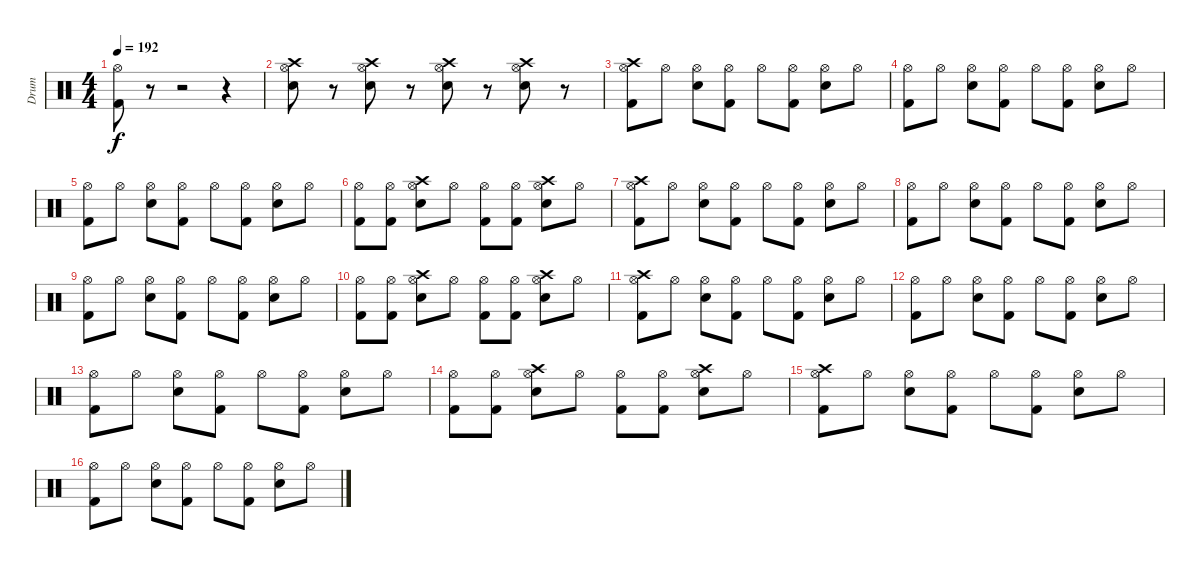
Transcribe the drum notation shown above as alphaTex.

\track ("Drum" "Drum") {instrument percussion}
\staff {score}
\articulation defaults
\ts (4 4)
\tempo 192
\clef neutral
\ks c
("Kick (hit) 2" "Hi-Hat (open)").8{dy f} r.8 r.2 r.4 |
("Crash high (hit)" "Electric Snare (hit)" "Hi-Hat (open)").8 r.8 ("Crash high (hit)" "Electric Snare (hit)" "Hi-Hat (open)").8 r.8 ("Crash high (hit)" "Electric Snare (hit)" "Hi-Hat (open)").8 r.8 ("Crash high (hit)" "Electric Snare (hit)" "Hi-Hat (open)").8 r.8 |
("Crash high (hit)" "Kick (hit) 2" "Hi-Hat (open)").8 "Hi-Hat (open)".8 ("Electric Snare (hit)" "Hi-Hat (open)").8 ("Kick (hit) 2" "Hi-Hat (open)").8 "Hi-Hat (open)".8 ("Kick (hit) 2" "Hi-Hat (open)").8 ("Electric Snare (hit)" "Hi-Hat (open)").8 "Hi-Hat (open)".8 |
("Kick (hit) 2" "Hi-Hat (open)").8 "Hi-Hat (open)".8 ("Electric Snare (hit)" "Hi-Hat (open)").8 ("Kick (hit) 2" "Hi-Hat (open)").8 "Hi-Hat (open)".8 ("Kick (hit) 2" "Hi-Hat (open)").8 ("Electric Snare (hit)" "Hi-Hat (open)").8 "Hi-Hat (open)".8 |
("Kick (hit) 2" "Hi-Hat (open)").8 "Hi-Hat (open)".8 ("Electric Snare (hit)" "Hi-Hat (open)").8 ("Kick (hit) 2" "Hi-Hat (open)").8 "Hi-Hat (open)".8 ("Kick (hit) 2" "Hi-Hat (open)").8 ("Electric Snare (hit)" "Hi-Hat (open)").8 "Hi-Hat (open)".8 |
("Kick (hit) 2" "Hi-Hat (open)").8 ("Kick (hit) 2" "Hi-Hat (open)").8 ("Crash high (hit)" "Electric Snare (hit)" "Hi-Hat (open)").8 "Hi-Hat (open)".8 ("Kick (hit) 2" "Hi-Hat (open)").8 ("Kick (hit) 2" "Hi-Hat (open)").8 ("Crash high (hit)" "Electric Snare (hit)" "Hi-Hat (open)").8 "Hi-Hat (open)".8 |
("Crash high (hit)" "Kick (hit) 2" "Hi-Hat (open)").8 "Hi-Hat (open)".8 ("Electric Snare (hit)" "Hi-Hat (open)").8 ("Kick (hit) 2" "Hi-Hat (open)").8 "Hi-Hat (open)".8 ("Kick (hit) 2" "Hi-Hat (open)").8 ("Electric Snare (hit)" "Hi-Hat (open)").8 "Hi-Hat (open)".8 |
("Kick (hit) 2" "Hi-Hat (open)").8 "Hi-Hat (open)".8 ("Electric Snare (hit)" "Hi-Hat (open)").8 ("Kick (hit) 2" "Hi-Hat (open)").8 "Hi-Hat (open)".8 ("Kick (hit) 2" "Hi-Hat (open)").8 ("Electric Snare (hit)" "Hi-Hat (open)").8 "Hi-Hat (open)".8 |
("Kick (hit) 2" "Hi-Hat (open)").8 "Hi-Hat (open)".8 ("Electric Snare (hit)" "Hi-Hat (open)").8 ("Kick (hit) 2" "Hi-Hat (open)").8 "Hi-Hat (open)".8 ("Kick (hit) 2" "Hi-Hat (open)").8 ("Electric Snare (hit)" "Hi-Hat (open)").8 "Hi-Hat (open)".8 |
("Kick (hit) 2" "Hi-Hat (open)").8 ("Kick (hit) 2" "Hi-Hat (open)").8 ("Crash high (hit)" "Electric Snare (hit)" "Hi-Hat (open)").8 "Hi-Hat (open)".8 ("Kick (hit) 2" "Hi-Hat (open)").8 ("Kick (hit) 2" "Hi-Hat (open)").8 ("Crash high (hit)" "Electric Snare (hit)" "Hi-Hat (open)").8 "Hi-Hat (open)".8 |
("Crash high (hit)" "Kick (hit) 2" "Hi-Hat (open)").8 "Hi-Hat (open)".8 ("Electric Snare (hit)" "Hi-Hat (open)").8 ("Kick (hit) 2" "Hi-Hat (open)").8 "Hi-Hat (open)".8 ("Kick (hit) 2" "Hi-Hat (open)").8 ("Electric Snare (hit)" "Hi-Hat (open)").8 "Hi-Hat (open)".8 |
("Kick (hit) 2" "Hi-Hat (open)").8 "Hi-Hat (open)".8 ("Electric Snare (hit)" "Hi-Hat (open)").8 ("Kick (hit) 2" "Hi-Hat (open)").8 "Hi-Hat (open)".8 ("Kick (hit) 2" "Hi-Hat (open)").8 ("Electric Snare (hit)" "Hi-Hat (open)").8 "Hi-Hat (open)".8 |
("Kick (hit) 2" "Hi-Hat (open)").8 "Hi-Hat (open)".8 ("Electric Snare (hit)" "Hi-Hat (open)").8 ("Kick (hit) 2" "Hi-Hat (open)").8 "Hi-Hat (open)".8 ("Kick (hit) 2" "Hi-Hat (open)").8 ("Electric Snare (hit)" "Hi-Hat (open)").8 "Hi-Hat (open)".8 |
("Kick (hit) 2" "Hi-Hat (open)").8 ("Kick (hit) 2" "Hi-Hat (open)").8 ("Crash high (hit)" "Electric Snare (hit)" "Hi-Hat (open)").8 "Hi-Hat (open)".8 ("Kick (hit) 2" "Hi-Hat (open)").8 ("Kick (hit) 2" "Hi-Hat (open)").8 ("Crash high (hit)" "Electric Snare (hit)" "Hi-Hat (open)").8 "Hi-Hat (open)".8 |
("Crash high (hit)" "Kick (hit) 2" "Hi-Hat (open)").8 "Hi-Hat (open)".8 ("Electric Snare (hit)" "Hi-Hat (open)").8 ("Kick (hit) 2" "Hi-Hat (open)").8 "Hi-Hat (open)".8 ("Kick (hit) 2" "Hi-Hat (open)").8 ("Electric Snare (hit)" "Hi-Hat (open)").8 "Hi-Hat (open)".8 |
("Kick (hit) 2" "Hi-Hat (open)").8 "Hi-Hat (open)".8 ("Electric Snare (hit)" "Hi-Hat (open)").8 ("Kick (hit) 2" "Hi-Hat (open)").8 "Hi-Hat (open)".8 ("Kick (hit) 2" "Hi-Hat (open)").8 ("Electric Snare (hit)" "Hi-Hat (open)").8 "Hi-Hat (open)".8
